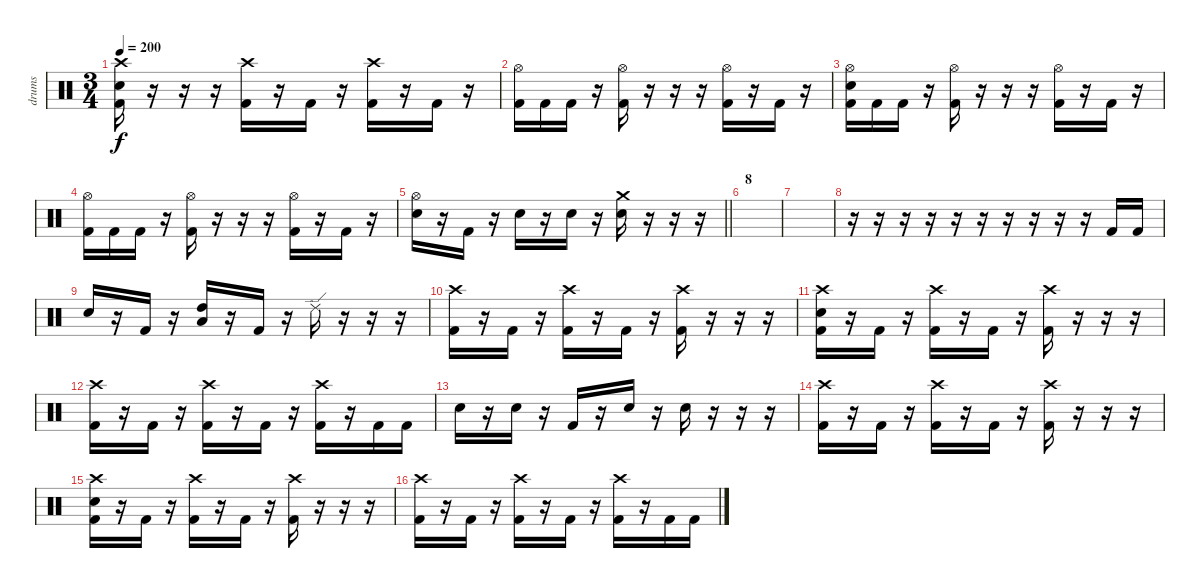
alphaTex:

\track ("drums" "drums") {instrument percussion}
\staff {score}
\articulation defaults
\ts (3 4)
\tempo 200
\clef neutral
\ks c
("Crash high (hit)" "Electric Snare (hit)" "Kick (hit) 2").16{dy f} r.16 r.16 r.16 ("Crash high (hit)" "Kick (hit) 2").16 r.16 "Kick (hit) 2".16 r.16 ("Crash high (hit)" "Kick (hit) 2").16 r.16 "Kick (hit) 2".16 r.16 |
("Kick (hit) 2" "Hi-Hat (open)").16 "Kick (hit) 2".16 "Kick (hit) 2".16 r.16 ("Hi-Hat (open)" "Kick (hit) 2").16 r.16 r.16 r.16 ("Hi-Hat (open)" "Kick (hit) 2").16 r.16 "Kick (hit) 2".16 r.16 |
("Kick (hit) 2" "Hi-Hat (open)" "Electric Snare (hit)").16 "Kick (hit) 2".16 "Kick (hit) 2".16 r.16 ("Hi-Hat (open)" "Kick (hit) 2").16 r.16 r.16 r.16 ("Hi-Hat (open)" "Kick (hit) 2").16 r.16 "Kick (hit) 2".16 r.16 |
("Kick (hit) 2" "Hi-Hat (open)").16 "Kick (hit) 2".16 "Kick (hit) 2".16 r.16 ("Hi-Hat (open)" "Kick (hit) 2").16 r.16 r.16 r.16 ("Hi-Hat (open)" "Kick (hit) 2").16 r.16 "Kick (hit) 2".16 r.16 |
\barLineRight lightlight
("Electric Snare (hit)" "Hi-Hat (open)").16 r.16 "Kick (hit) 2".16 r.16 "Electric Snare (hit)".16 r.16 "Electric Snare (hit)".16 r.16 ("Crash medium (hit)" "Electric Snare (hit)").16 r.16 r.16 r.16 |
\section ("" "8")
|
|
r.16 r.16 r.16 r.16 r.16 r.16 r.16 r.16 r.16 r.16 "Kick (hit) 2".16 "Kick (hit) 2".16 |
"Electric Snare (hit)".16 r.16 "Kick (hit) 2".16 r.16 ("High Tom (hit)" "Low Tom (hit)").16 r.16 "Kick (hit) 2".16 r.16 "Ride (edge) 2".16 r.16 r.16 r.16 |
("Kick (hit) 2" "Crash high (hit)").16 r.16 "Kick (hit) 2".16 r.16 ("Kick (hit) 2" "Crash high (hit)").16 r.16 "Kick (hit) 2".16 r.16 ("Kick (hit) 2" "Crash high (hit)").16 r.16 r.16 r.16 |
("Kick (hit) 2" "Crash high (hit)" "Electric Snare (hit)").16 r.16 "Kick (hit) 2".16 r.16 ("Kick (hit) 2" "Crash high (hit)").16 r.16 "Kick (hit) 2".16 r.16 ("Kick (hit) 2" "Crash high (hit)").16 r.16 r.16 r.16 |
("Kick (hit) 2" "Crash high (hit)").16 r.16 "Kick (hit) 2".16 r.16 ("Kick (hit) 2" "Crash high (hit)").16 r.16 "Kick (hit) 2".16 r.16 ("Kick (hit) 2" "Crash high (hit)").16 r.16 "Kick (hit) 2".16 "Kick (hit) 2".16 |
"Electric Snare (hit)".16 r.16 "Electric Snare (hit)".16 r.16 "Kick (hit) 2".16 r.16 "Electric Snare (hit)".16 r.16 "Electric Snare (hit)".16 r.16 r.16 r.16 |
("Kick (hit) 2" "Crash high (hit)").16 r.16 "Kick (hit) 2".16 r.16 ("Kick (hit) 2" "Crash high (hit)").16 r.16 "Kick (hit) 2".16 r.16 ("Kick (hit) 2" "Crash high (hit)").16 r.16 r.16 r.16 |
("Kick (hit) 2" "Crash high (hit)" "Electric Snare (hit)").16 r.16 "Kick (hit) 2".16 r.16 ("Kick (hit) 2" "Crash high (hit)").16 r.16 "Kick (hit) 2".16 r.16 ("Kick (hit) 2" "Crash high (hit)").16 r.16 r.16 r.16 |
("Kick (hit) 2" "Crash high (hit)").16 r.16 "Kick (hit) 2".16 r.16 ("Kick (hit) 2" "Crash high (hit)").16 r.16 "Kick (hit) 2".16 r.16 ("Kick (hit) 2" "Crash high (hit)").16 r.16 "Kick (hit) 2".16 "Kick (hit) 2".16
